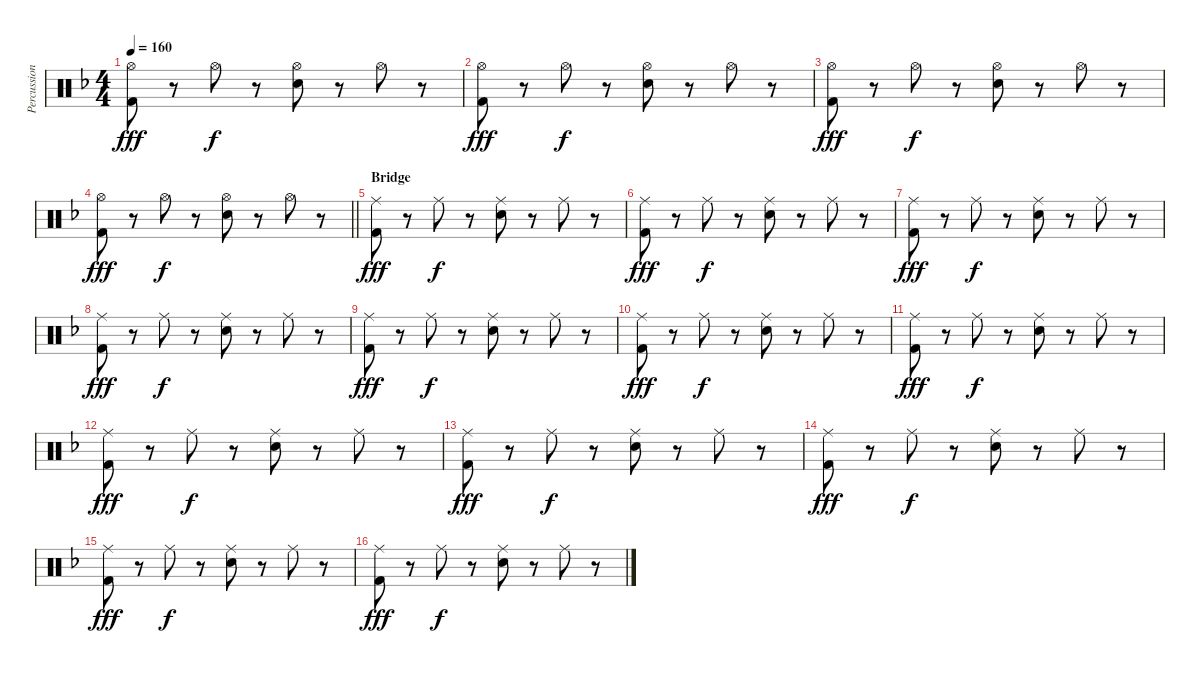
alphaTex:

\track ("Percussion" "Percussion") {instrument percussion}
\staff {score}
\articulation defaults
\ts (4 4)
\tempo 160
\clef neutral
\ks f
("Hi-Hat (open)" "Kick (hit) 2").8{dy fff} r.8 "Hi-Hat (open)".8{dy f} r.8 ("Hi-Hat (open)" "Electric Snare (hit)").8 r.8 "Hi-Hat (open)".8 r.8 |
("Hi-Hat (open)" "Kick (hit) 2").8{dy fff} r.8 "Hi-Hat (open)".8{dy f} r.8 ("Hi-Hat (open)" "Electric Snare (hit)").8 r.8 "Hi-Hat (open)".8 r.8 |
("Hi-Hat (open)" "Kick (hit) 2").8{dy fff} r.8 "Hi-Hat (open)".8{dy f} r.8 ("Hi-Hat (open)" "Electric Snare (hit)").8 r.8 "Hi-Hat (open)".8 r.8 |
\barLineRight lightlight
("Hi-Hat (open)" "Kick (hit) 2").8{dy fff} r.8 "Hi-Hat (open)".8{dy f} r.8 ("Hi-Hat (open)" "Electric Snare (hit)").8 r.8 "Hi-Hat (open)".8 r.8 |
\section ("" "Bridge")
("Ride (middle)" "Kick (hit) 2").8{dy fff} r.8 "Ride (middle)".8{dy f} r.8 ("Ride (middle)" "Electric Snare (hit)").8 r.8 "Ride (middle)".8 r.8 |
("Ride (middle)" "Kick (hit) 2").8{dy fff} r.8 "Ride (middle)".8{dy f} r.8 ("Ride (middle)" "Electric Snare (hit)").8 r.8 "Ride (middle)".8 r.8 |
("Ride (middle)" "Kick (hit) 2").8{dy fff} r.8 "Ride (middle)".8{dy f} r.8 ("Ride (middle)" "Electric Snare (hit)").8 r.8 "Ride (middle)".8 r.8 |
("Ride (middle)" "Kick (hit) 2").8{dy fff} r.8 "Ride (middle)".8{dy f} r.8 ("Ride (middle)" "Electric Snare (hit)").8 r.8 "Ride (middle)".8 r.8 |
("Ride (middle)" "Kick (hit) 2").8{dy fff} r.8 "Ride (middle)".8{dy f} r.8 ("Ride (middle)" "Electric Snare (hit)").8 r.8 "Ride (middle)".8 r.8 |
("Ride (middle)" "Kick (hit) 2").8{dy fff} r.8 "Ride (middle)".8{dy f} r.8 ("Ride (middle)" "Electric Snare (hit)").8 r.8 "Ride (middle)".8 r.8 |
("Ride (middle)" "Kick (hit) 2").8{dy fff} r.8 "Ride (middle)".8{dy f} r.8 ("Ride (middle)" "Electric Snare (hit)").8 r.8 "Ride (middle)".8 r.8 |
("Ride (middle)" "Kick (hit) 2").8{dy fff} r.8 "Ride (middle)".8{dy f} r.8 ("Ride (middle)" "Electric Snare (hit)").8 r.8 "Ride (middle)".8 r.8 |
("Ride (middle)" "Kick (hit) 2").8{dy fff} r.8 "Ride (middle)".8{dy f} r.8 ("Ride (middle)" "Electric Snare (hit)").8 r.8 "Ride (middle)".8 r.8 |
("Ride (middle)" "Kick (hit) 2").8{dy fff} r.8 "Ride (middle)".8{dy f} r.8 ("Ride (middle)" "Electric Snare (hit)").8 r.8 "Ride (middle)".8 r.8 |
("Ride (middle)" "Kick (hit) 2").8{dy fff} r.8 "Ride (middle)".8{dy f} r.8 ("Ride (middle)" "Electric Snare (hit)").8 r.8 "Ride (middle)".8 r.8 |
("Ride (middle)" "Kick (hit) 2").8{dy fff} r.8 "Ride (middle)".8{dy f} r.8 ("Ride (middle)" "Electric Snare (hit)").8 r.8 "Ride (middle)".8 r.8
